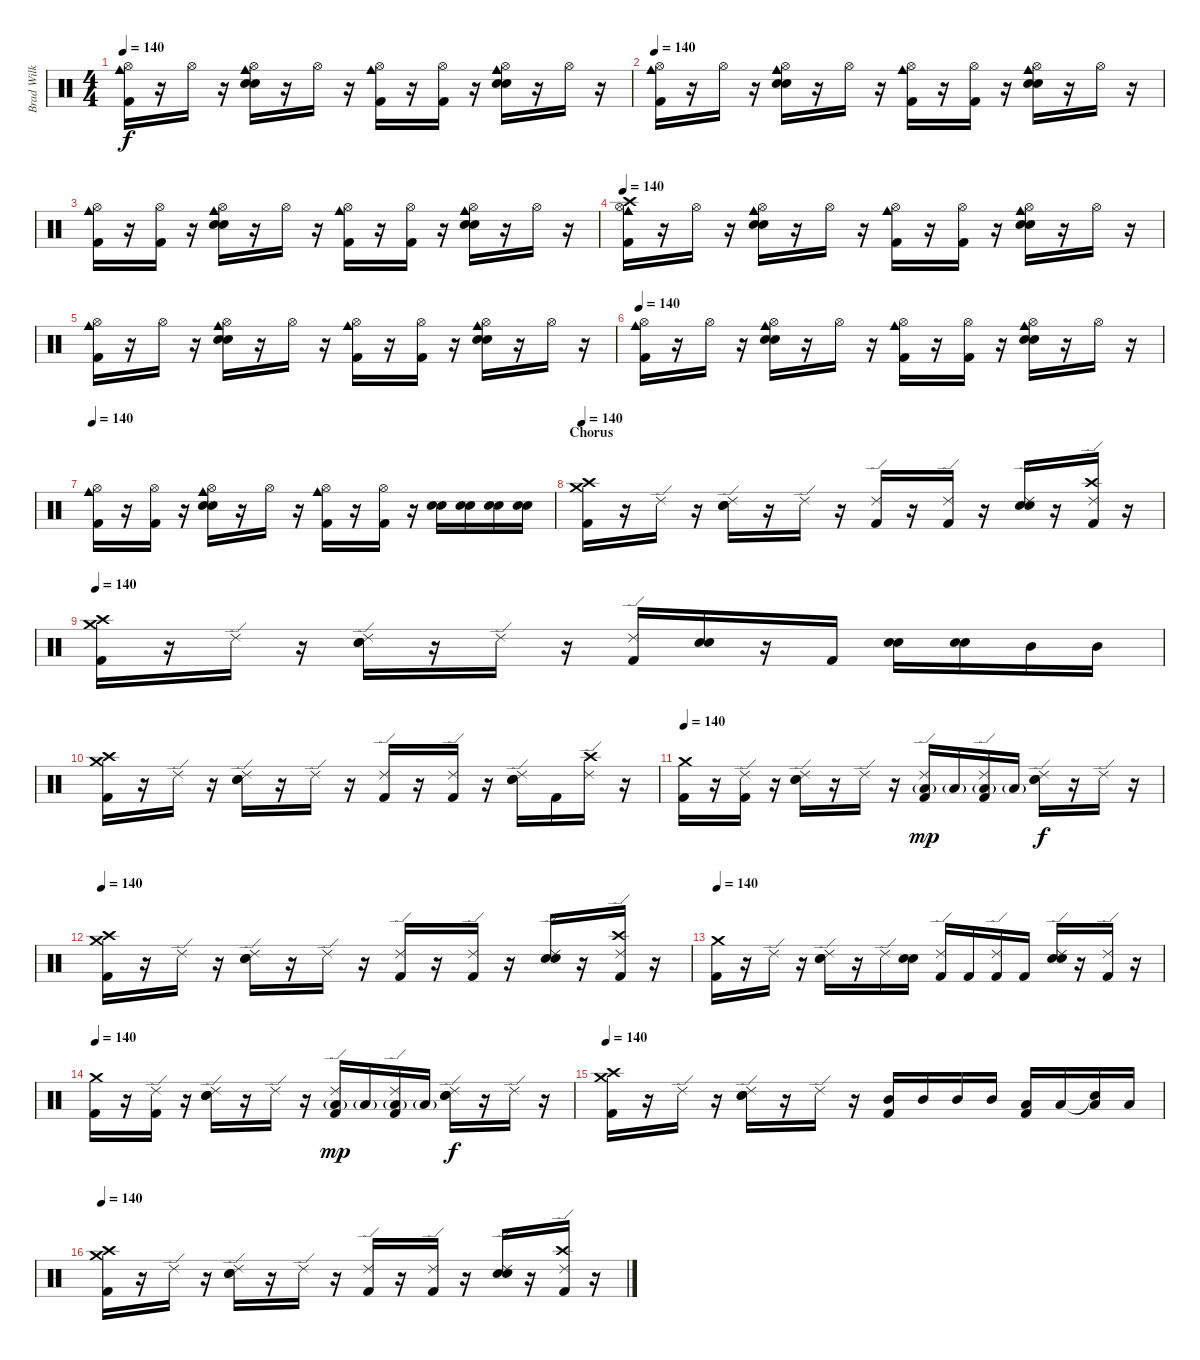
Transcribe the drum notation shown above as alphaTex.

\track ("Brad Wilk" "Brad Wilk") {instrument percussion}
\staff {score}
\articulation defaults
\ts (4 4)
\tempo 140
\clef neutral
\ks c
("Hi-Hat (open)" "Cowbell medium (hit)" "Kick (hit) 2").16{dy f} r.16 "Hi-Hat (open)".16 r.16 ("Hi-Hat (open)" "Cowbell medium (hit)" "Electric Snare (hit)" "Snare (hit) 2").16 r.16 "Hi-Hat (open)".16 r.16 ("Hi-Hat (open)" "Cowbell medium (hit)" "Kick (hit) 2").16 r.16 ("Hi-Hat (open)" "Kick (hit) 2").16 r.16 ("Hi-Hat (open)" "Cowbell medium (hit)" "Electric Snare (hit)" "Snare (hit) 2").16 r.16 "Hi-Hat (open)".16 r.16 |
\tempo 140
("Hi-Hat (open)" "Cowbell medium (hit)" "Kick (hit) 2").16 r.16 "Hi-Hat (open)".16 r.16 ("Hi-Hat (open)" "Cowbell medium (hit)" "Electric Snare (hit)" "Snare (hit) 2").16 r.16 "Hi-Hat (open)".16 r.16 ("Hi-Hat (open)" "Cowbell medium (hit)" "Kick (hit) 2").16 r.16 ("Hi-Hat (open)" "Kick (hit) 2").16 r.16 ("Hi-Hat (open)" "Cowbell medium (hit)" "Electric Snare (hit)" "Snare (hit) 2").16 r.16 "Hi-Hat (open)".16 r.16 |
("Hi-Hat (open)" "Cowbell medium (hit)" "Kick (hit) 2").16 r.16 ("Hi-Hat (open)" "Kick (hit) 2").16 r.16 ("Hi-Hat (open)" "Cowbell medium (hit)" "Electric Snare (hit)" "Snare (hit) 2").16 r.16 "Hi-Hat (open)".16 r.16 ("Hi-Hat (open)" "Cowbell medium (hit)" "Kick (hit) 2").16 r.16 ("Hi-Hat (open)" "Kick (hit) 2").16 r.16 ("Hi-Hat (open)" "Cowbell medium (hit)" "Electric Snare (hit)" "Snare (hit) 2").16 r.16 "Hi-Hat (open)".16 r.16 |
\tempo 140
("Hi-Hat (open)" "Crash high (hit)" "Cowbell medium (hit)" "Kick (hit) 2").16 r.16 "Hi-Hat (open)".16 r.16 ("Hi-Hat (open)" "Cowbell medium (hit)" "Electric Snare (hit)" "Snare (hit) 2").16 r.16 "Hi-Hat (open)".16 r.16 ("Hi-Hat (open)" "Cowbell medium (hit)" "Kick (hit) 2").16 r.16 ("Hi-Hat (open)" "Kick (hit) 2").16 r.16 ("Hi-Hat (open)" "Cowbell medium (hit)" "Electric Snare (hit)" "Snare (hit) 2").16 r.16 "Hi-Hat (open)".16 r.16 |
("Hi-Hat (open)" "Cowbell medium (hit)" "Kick (hit) 2").16 r.16 "Hi-Hat (open)".16 r.16 ("Hi-Hat (open)" "Cowbell medium (hit)" "Electric Snare (hit)" "Snare (hit) 2").16 r.16 "Hi-Hat (open)".16 r.16 ("Hi-Hat (open)" "Cowbell medium (hit)" "Kick (hit) 2").16 r.16 ("Hi-Hat (open)" "Kick (hit) 2").16 r.16 ("Hi-Hat (open)" "Cowbell medium (hit)" "Electric Snare (hit)" "Snare (hit) 2").16 r.16 "Hi-Hat (open)".16 r.16 |
\tempo 140
("Hi-Hat (open)" "Cowbell medium (hit)" "Kick (hit) 2").16 r.16 "Hi-Hat (open)".16 r.16 ("Hi-Hat (open)" "Cowbell medium (hit)" "Electric Snare (hit)" "Snare (hit) 2").16 r.16 "Hi-Hat (open)".16 r.16 ("Hi-Hat (open)" "Cowbell medium (hit)" "Kick (hit) 2").16 r.16 ("Hi-Hat (open)" "Kick (hit) 2").16 r.16 ("Hi-Hat (open)" "Cowbell medium (hit)" "Electric Snare (hit)" "Snare (hit) 2").16 r.16 "Hi-Hat (open)".16 r.16 |
\tempo 140
("Hi-Hat (open)" "Cowbell medium (hit)" "Kick (hit) 2").16 r.16 ("Hi-Hat (open)" "Kick (hit) 2").16 r.16 ("Hi-Hat (open)" "Cowbell medium (hit)" "Electric Snare (hit)" "Snare (hit) 2").16 r.16 "Hi-Hat (open)".16 r.16 ("Hi-Hat (open)" "Cowbell medium (hit)" "Kick (hit) 2").16 r.16 ("Hi-Hat (open)" "Kick (hit) 2").16 r.16 ("Electric Snare (hit)" "Snare (hit) 2").16 ("Electric Snare (hit)" "Snare (hit) 2").16 ("Electric Snare (hit)" "Snare (hit) 2").16 ("Electric Snare (hit)" "Snare (hit) 2").16 |
\section ("" "Chorus")
\tempo 140
("Crash medium (hit)" "Crash high (hit)" "Kick (hit) 2").16 r.16 "Ride (edge) 2".16 r.16 ("Ride (edge) 2" "Electric Snare (hit)" "Snare (hit) 2").16 r.16 "Ride (edge) 2".16 r.16 ("Ride (edge) 2" "Kick (hit) 2").16 r.16 ("Ride (edge) 2" "Kick (hit) 2").16 r.16 ("Ride (edge) 2" "Electric Snare (hit)" "Snare (hit) 2").16 r.16 ("Ride (edge) 2" "Crash high (hit)" "Kick (hit) 2").16 r.16 |
\tempo 140
("Crash medium (hit)" "Crash high (hit)" "Kick (hit) 2").16 r.16 "Ride (edge) 2".16 r.16 ("Ride (edge) 2" "Electric Snare (hit)" "Snare (hit) 2").16 r.16 "Ride (edge) 2".16 r.16 ("Ride (edge) 2" "Kick (hit) 2").16 ("Electric Snare (hit)" "Snare (hit) 2").16 r.16 "Kick (hit) 2".16 ("Electric Snare (hit)" "Snare (hit) 2").16 ("Electric Snare (hit)" "Electric Snare (hit)").16 "Mid Tom (hit)".16 "Mid Tom (hit)".16 |
("Crash medium (hit)" "Crash high (hit)" "Kick (hit) 2").16 r.16 "Ride (edge) 2".16 r.16 ("Ride (edge) 2" "Electric Snare (hit)" "Snare (hit) 2").16 r.16 "Ride (edge) 2".16 r.16 ("Ride (edge) 2" "Kick (hit) 2").16 r.16 ("Ride (edge) 2" "Kick (hit) 2").16 r.16 ("Ride (edge) 2" "Electric Snare (hit)" "Snare (hit) 2").16 "Kick (hit) 2".16 ("Ride (edge) 2" "Crash high (hit)").16 r.16 |
\tempo 140
("Crash medium (hit)" "Kick (hit) 2").16 r.16 ("Ride (edge) 2" "Kick (hit) 2").16 r.16 ("Ride (edge) 2" "Electric Snare (hit)" "Snare (hit) 2").16 r.16 "Ride (edge) 2".16 r.16 ("Ride (edge) 2" "Low Tom (hit)"{g} "Kick (hit) 2").16{dy mp} "Low Tom (hit)"{g}.16 ("Ride (edge) 2" "Low Tom (hit)"{g} "Kick (hit) 2").16 "Low Tom (hit)"{g}.16 ("Ride (edge) 2" "Electric Snare (hit)" "Snare (hit) 2").16{dy f} r.16 "Ride (edge) 2".16 r.16 |
\tempo 140
("Crash medium (hit)" "Crash high (hit)" "Kick (hit) 2").16 r.16 "Ride (edge) 2".16 r.16 ("Ride (edge) 2" "Electric Snare (hit)" "Snare (hit) 2").16 r.16 "Ride (edge) 2".16 r.16 ("Ride (edge) 2" "Kick (hit) 2").16 r.16 ("Ride (edge) 2" "Kick (hit) 2").16 r.16 ("Ride (edge) 2" "Electric Snare (hit)" "Snare (hit) 2").16 r.16 ("Ride (edge) 2" "Crash high (hit)" "Kick (hit) 2").16 r.16 |
\tempo 130
\tempo 140
("Crash medium (hit)" "Kick (hit) 2").16 r.16 "Ride (edge) 2".16 r.16 ("Ride (edge) 2" "Electric Snare (hit)" "Snare (hit) 2").16 r.16 "Ride (edge) 2".16 ("Electric Snare (hit)" "Snare (hit) 2").16 ("Ride (edge) 2" "Kick (hit) 2").16 "Kick (hit) 2".16 ("Ride (edge) 2" "Kick (hit) 2").16 "Kick (hit) 2".16 ("Ride (edge) 2" "Electric Snare (hit)" "Snare (hit) 2").16 r.16 ("Ride (edge) 2" "Kick (hit) 2").16 r.16 |
\tempo 140
("Crash medium (hit)" "Kick (hit) 2").16 r.16 ("Ride (edge) 2" "Kick (hit) 2").16 r.16 ("Ride (edge) 2" "Electric Snare (hit)" "Snare (hit) 2").16 r.16 "Ride (edge) 2".16 r.16 ("Ride (edge) 2" "Low Tom (hit)"{g} "Kick (hit) 2").16{dy mp} "Low Tom (hit)"{g}.16 ("Ride (edge) 2" "Low Tom (hit)"{g} "Kick (hit) 2").16 "Low Tom (hit)"{g}.16 ("Ride (edge) 2" "Electric Snare (hit)" "Snare (hit) 2").16{dy f} r.16 "Ride (edge) 2".16 r.16 |
\tempo 140
("Crash medium (hit)" "Crash high (hit)" "Kick (hit) 2").16 r.16 "Ride (edge) 2".16 r.16 ("Ride (edge) 2" "Electric Snare (hit)" "Snare (hit) 2").16 r.16 "Ride (edge) 2".16 r.16 ("Mid Tom (hit)" "Kick (hit) 2").16 "Mid Tom (hit)".16 "Mid Tom (hit)".16 "Mid Tom (hit)".16 ("Low Tom (hit)" "Kick (hit) 2").16 "Low Tom (hit)".16 ("Snare (hit)"{t} "Low Tom (hit)").16 "Low Tom (hit)".16 |
\tempo 140
("Crash medium (hit)" "Crash high (hit)" "Kick (hit) 2").16 r.16 "Ride (edge) 2".16 r.16 ("Ride (edge) 2" "Electric Snare (hit)" "Snare (hit) 2").16 r.16 "Ride (edge) 2".16 r.16 ("Ride (edge) 2" "Kick (hit) 2").16 r.16 ("Ride (edge) 2" "Kick (hit) 2").16 r.16 ("Ride (edge) 2" "Electric Snare (hit)" "Snare (hit) 2").16 r.16 ("Ride (edge) 2" "Crash high (hit)" "Kick (hit) 2").16 r.16
